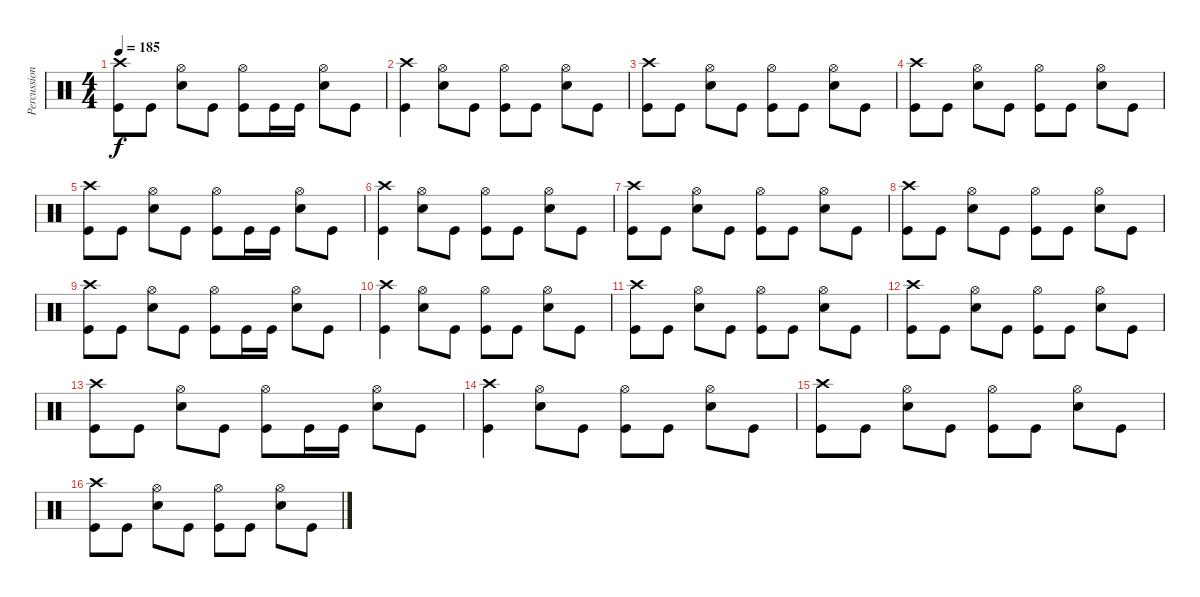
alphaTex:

\track ("Percussions" "Percussion") {instrument percussion}
\staff {score}
\articulation defaults
\ts (4 4)
\tempo 185
\clef neutral
\ks c
("Crash high (hit)" "Kick (hit)").8{dy f} "Kick (hit)".8 ("Hi-Hat (open)" "Snare (hit) 2").8 "Kick (hit)".8 ("Hi-Hat (open)" "Kick (hit)").8 "Kick (hit)".16 "Kick (hit)".16 ("Hi-Hat (open)" "Snare (hit) 2").8 "Kick (hit)".8 |
("Crash high (hit)" "Kick (hit)").4 ("Hi-Hat (open)" "Snare (hit) 2").8 "Kick (hit)".8 ("Hi-Hat (open)" "Kick (hit)").8 "Kick (hit)".8 ("Hi-Hat (open)" "Snare (hit) 2").8 "Kick (hit)".8 |
("Crash high (hit)" "Kick (hit)").8 "Kick (hit)".8 ("Hi-Hat (open)" "Snare (hit) 2").8 "Kick (hit)".8 ("Hi-Hat (open)" "Kick (hit)").8 "Kick (hit)".8 ("Hi-Hat (open)" "Snare (hit) 2").8 "Kick (hit)".8 |
("Crash high (hit)" "Kick (hit)").8 "Kick (hit)".8 ("Hi-Hat (open)" "Snare (hit) 2").8 "Kick (hit)".8 ("Hi-Hat (open)" "Kick (hit)").8 "Kick (hit)".8 ("Hi-Hat (open)" "Snare (hit) 2").8 "Kick (hit)".8 |
("Crash high (hit)" "Kick (hit)").8 "Kick (hit)".8 ("Hi-Hat (open)" "Snare (hit) 2").8 "Kick (hit)".8 ("Hi-Hat (open)" "Kick (hit)").8 "Kick (hit)".16 "Kick (hit)".16 ("Hi-Hat (open)" "Snare (hit) 2").8 "Kick (hit)".8 |
("Crash high (hit)" "Kick (hit)").4 ("Hi-Hat (open)" "Snare (hit) 2").8 "Kick (hit)".8 ("Hi-Hat (open)" "Kick (hit)").8 "Kick (hit)".8 ("Hi-Hat (open)" "Snare (hit) 2").8 "Kick (hit)".8 |
("Crash high (hit)" "Kick (hit)").8 "Kick (hit)".8 ("Hi-Hat (open)" "Snare (hit) 2").8 "Kick (hit)".8 ("Hi-Hat (open)" "Kick (hit)").8 "Kick (hit)".8 ("Hi-Hat (open)" "Snare (hit) 2").8 "Kick (hit)".8 |
("Crash high (hit)" "Kick (hit)").8 "Kick (hit)".8 ("Hi-Hat (open)" "Snare (hit) 2").8 "Kick (hit)".8 ("Hi-Hat (open)" "Kick (hit)").8 "Kick (hit)".8 ("Hi-Hat (open)" "Snare (hit) 2").8 "Kick (hit)".8 |
("Crash high (hit)" "Kick (hit)").8 "Kick (hit)".8 ("Hi-Hat (open)" "Snare (hit) 2").8 "Kick (hit)".8 ("Hi-Hat (open)" "Kick (hit)").8 "Kick (hit)".16 "Kick (hit)".16 ("Hi-Hat (open)" "Snare (hit) 2").8 "Kick (hit)".8 |
("Crash high (hit)" "Kick (hit)").4 ("Hi-Hat (open)" "Snare (hit) 2").8 "Kick (hit)".8 ("Hi-Hat (open)" "Kick (hit)").8 "Kick (hit)".8 ("Hi-Hat (open)" "Snare (hit) 2").8 "Kick (hit)".8 |
("Crash high (hit)" "Kick (hit)").8 "Kick (hit)".8 ("Hi-Hat (open)" "Snare (hit) 2").8 "Kick (hit)".8 ("Hi-Hat (open)" "Kick (hit)").8 "Kick (hit)".8 ("Hi-Hat (open)" "Snare (hit) 2").8 "Kick (hit)".8 |
("Crash high (hit)" "Kick (hit)").8 "Kick (hit)".8 ("Hi-Hat (open)" "Snare (hit) 2").8 "Kick (hit)".8 ("Hi-Hat (open)" "Kick (hit)").8 "Kick (hit)".8 ("Hi-Hat (open)" "Snare (hit) 2").8 "Kick (hit)".8 |
("Crash high (hit)" "Kick (hit)").8 "Kick (hit)".8 ("Hi-Hat (open)" "Snare (hit) 2").8 "Kick (hit)".8 ("Hi-Hat (open)" "Kick (hit)").8 "Kick (hit)".16 "Kick (hit)".16 ("Hi-Hat (open)" "Snare (hit) 2").8 "Kick (hit)".8 |
("Crash high (hit)" "Kick (hit)").4 ("Hi-Hat (open)" "Snare (hit) 2").8 "Kick (hit)".8 ("Hi-Hat (open)" "Kick (hit)").8 "Kick (hit)".8 ("Hi-Hat (open)" "Snare (hit) 2").8 "Kick (hit)".8 |
("Crash high (hit)" "Kick (hit)").8 "Kick (hit)".8 ("Hi-Hat (open)" "Snare (hit) 2").8 "Kick (hit)".8 ("Hi-Hat (open)" "Kick (hit)").8 "Kick (hit)".8 ("Hi-Hat (open)" "Snare (hit) 2").8 "Kick (hit)".8 |
("Crash high (hit)" "Kick (hit)").8 "Kick (hit)".8 ("Hi-Hat (open)" "Snare (hit) 2").8 "Kick (hit)".8 ("Hi-Hat (open)" "Kick (hit)").8 "Kick (hit)".8 ("Hi-Hat (open)" "Snare (hit) 2").8 "Kick (hit)".8
